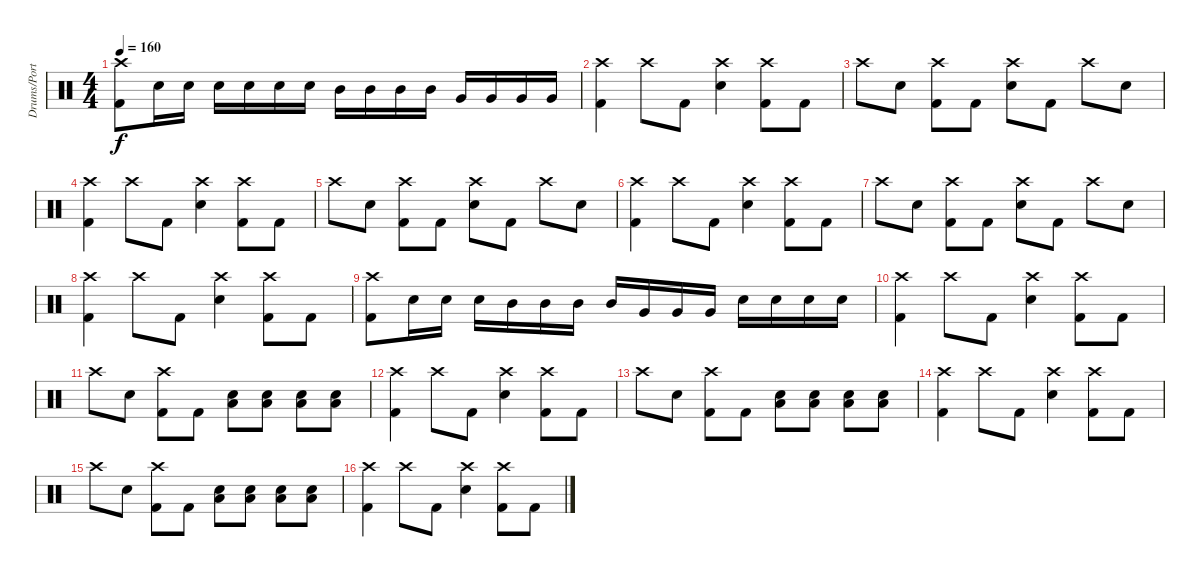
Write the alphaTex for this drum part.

\track ("Drums/Portnoy" "Drums/Port") {instrument percussion}
\staff {score}
\articulation defaults
\ts (4 4)
\tempo 160
\clef neutral
\ks c
("Crash high (hit)" "Kick (hit) 2").8{dy f} "Electric Snare (hit)".16 "Electric Snare (hit)".16 "Electric Snare (hit)".16 "Electric Snare (hit)".16 "Electric Snare (hit)".16 "Electric Snare (hit)".16 "Mid Tom (hit)".16 "Mid Tom (hit)".16 "Mid Tom (hit)".16 "Mid Tom (hit)".16 "Very Low Tom (hit)".16 "Very Low Tom (hit)".16 "Very Low Tom (hit)".16 "Very Low Tom (hit)".16 |
("Crash high (hit)" "Kick (hit) 2").4 "Crash high (hit)".8 "Kick (hit) 2".8 ("Crash high (hit)" "Electric Snare (hit)").4 ("Crash high (hit)" "Kick (hit) 2").8 "Kick (hit) 2".8 |
"Crash high (hit)".8 "Electric Snare (hit)".8 ("Crash high (hit)" "Kick (hit) 2").8 "Kick (hit) 2".8 ("Crash high (hit)" "Electric Snare (hit)").8 "Kick (hit) 2".8 "Crash high (hit)".8 "Electric Snare (hit)".8 |
("Crash high (hit)" "Kick (hit) 2").4 "Crash high (hit)".8 "Kick (hit) 2".8 ("Crash high (hit)" "Electric Snare (hit)").4 ("Crash high (hit)" "Kick (hit) 2").8 "Kick (hit) 2".8 |
"Crash high (hit)".8 "Electric Snare (hit)".8 ("Crash high (hit)" "Kick (hit) 2").8 "Kick (hit) 2".8 ("Crash high (hit)" "Electric Snare (hit)").8 "Kick (hit) 2".8 "Crash high (hit)".8 "Electric Snare (hit)".8 |
("Crash high (hit)" "Kick (hit) 2").4 "Crash high (hit)".8 "Kick (hit) 2".8 ("Crash high (hit)" "Electric Snare (hit)").4 ("Crash high (hit)" "Kick (hit) 2").8 "Kick (hit) 2".8 |
"Crash high (hit)".8 "Electric Snare (hit)".8 ("Crash high (hit)" "Kick (hit) 2").8 "Kick (hit) 2".8 ("Crash high (hit)" "Electric Snare (hit)").8 "Kick (hit) 2".8 "Crash high (hit)".8 "Electric Snare (hit)".8 |
("Crash high (hit)" "Kick (hit) 2").4 "Crash high (hit)".8 "Kick (hit) 2".8 ("Crash high (hit)" "Electric Snare (hit)").4 ("Crash high (hit)" "Kick (hit) 2").8 "Kick (hit) 2".8 |
("Crash high (hit)" "Kick (hit) 2").8 "Electric Snare (hit)".16 "Electric Snare (hit)".16 "Electric Snare (hit)".16 "Mid Tom (hit)".16 "Mid Tom (hit)".16 "Mid Tom (hit)".16 "Mid Tom (hit)".16 "Very Low Tom (hit)".16 "Very Low Tom (hit)".16 "Very Low Tom (hit)".16 "Electric Snare (hit)".16 "Electric Snare (hit)".16 "Electric Snare (hit)".16 "Electric Snare (hit)".16 |
("Crash high (hit)" "Kick (hit) 2").4 "Crash high (hit)".8 "Kick (hit) 2".8 ("Crash high (hit)" "Electric Snare (hit)").4 ("Crash high (hit)" "Kick (hit) 2").8 "Kick (hit) 2".8 |
"Crash high (hit)".8 "Electric Snare (hit)".8 ("Crash high (hit)" "Kick (hit) 2").8 "Kick (hit) 2".8 ("Low Tom (hit)" "Electric Snare (hit)").8 ("Low Tom (hit)" "Electric Snare (hit)").8 ("Low Tom (hit)" "Electric Snare (hit)").8 ("Low Tom (hit)" "Electric Snare (hit)").8 |
("Crash high (hit)" "Kick (hit) 2").4 "Crash high (hit)".8 "Kick (hit) 2".8 ("Crash high (hit)" "Electric Snare (hit)").4 ("Crash high (hit)" "Kick (hit) 2").8 "Kick (hit) 2".8 |
"Crash high (hit)".8 "Electric Snare (hit)".8 ("Crash high (hit)" "Kick (hit) 2").8 "Kick (hit) 2".8 ("Low Tom (hit)" "Electric Snare (hit)").8 ("Low Tom (hit)" "Electric Snare (hit)").8 ("Low Tom (hit)" "Electric Snare (hit)").8 ("Low Tom (hit)" "Electric Snare (hit)").8 |
("Crash high (hit)" "Kick (hit) 2").4 "Crash high (hit)".8 "Kick (hit) 2".8 ("Crash high (hit)" "Electric Snare (hit)").4 ("Crash high (hit)" "Kick (hit) 2").8 "Kick (hit) 2".8 |
"Crash high (hit)".8 "Electric Snare (hit)".8 ("Crash high (hit)" "Kick (hit) 2").8 "Kick (hit) 2".8 ("Low Tom (hit)" "Electric Snare (hit)").8 ("Low Tom (hit)" "Electric Snare (hit)").8 ("Low Tom (hit)" "Electric Snare (hit)").8 ("Low Tom (hit)" "Electric Snare (hit)").8 |
("Crash high (hit)" "Kick (hit) 2").4 "Crash high (hit)".8 "Kick (hit) 2".8 ("Crash high (hit)" "Electric Snare (hit)").4 ("Crash high (hit)" "Kick (hit) 2").8 "Kick (hit) 2".8
